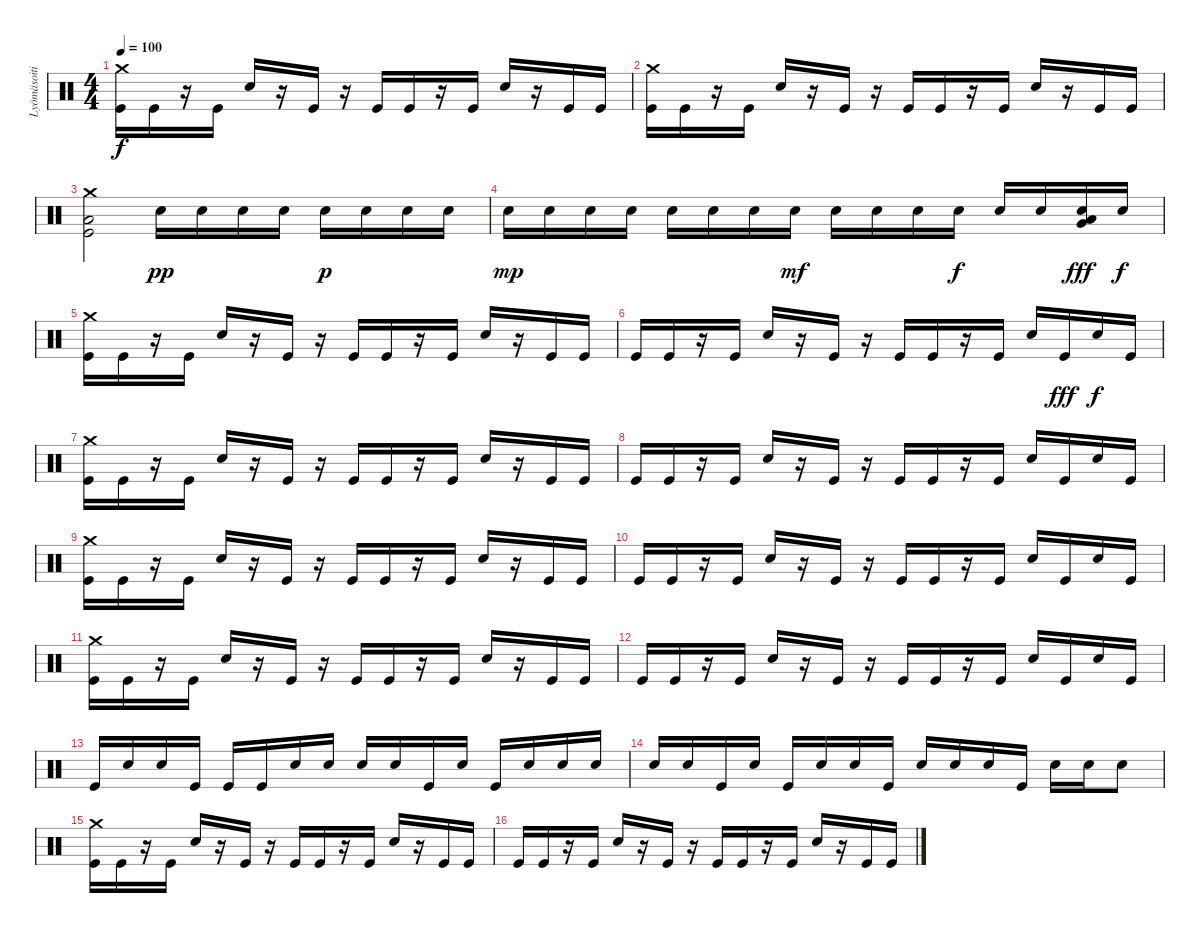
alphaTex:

\track ("Lyömäsoitin" "Lyömäsoiti") {instrument percussion}
\staff {score}
\articulation defaults
\ts (4 4)
\tempo 100
\clef neutral
\ks c
("Crash medium (hit)" "Kick (hit)").16{dy f} "Kick (hit)".16 r.16 "Kick (hit)".16 "Electric Snare (hit)".16 r.16 "Kick (hit)".16 r.16 "Kick (hit)".16 "Kick (hit)".16 r.16 "Kick (hit)".16 "Electric Snare (hit)".16 r.16 "Kick (hit)".16 "Kick (hit)".16 |
("Crash medium (hit)" "Kick (hit)").16 "Kick (hit)".16 r.16 "Kick (hit)".16 "Electric Snare (hit)".16 r.16 "Kick (hit)".16 r.16 "Kick (hit)".16 "Kick (hit)".16 r.16 "Kick (hit)".16 "Electric Snare (hit)".16 r.16 "Kick (hit)".16 "Kick (hit)".16 |
("Crash medium (hit)" "Low Floor Tom (hit)" "Kick (hit)").2 "Electric Snare (hit)".16{dy pp} "Electric Snare (hit)".16 "Electric Snare (hit)".16 "Electric Snare (hit)".16 "Electric Snare (hit)".16{dy p} "Electric Snare (hit)".16 "Electric Snare (hit)".16 "Electric Snare (hit)".16 |
"Electric Snare (hit)".16{dy mp} "Electric Snare (hit)".16 "Electric Snare (hit)".16 "Electric Snare (hit)".16 "Electric Snare (hit)".16 "Electric Snare (hit)".16 "Electric Snare (hit)".16 "Electric Snare (hit)".16{dy mf} "Electric Snare (hit)".16 "Electric Snare (hit)".16 "Electric Snare (hit)".16 "Electric Snare (hit)".16{dy f} "Electric Snare (hit)".16 "Electric Snare (hit)".16 ("Electric Snare (hit)" "Low Floor Tom (hit)" "Very Low Tom (hit)").16{dy fff} "Electric Snare (hit)".16{dy f} |
("Crash medium (hit)" "Kick (hit)").16 "Kick (hit)".16 r.16 "Kick (hit)".16 "Electric Snare (hit)".16 r.16 "Kick (hit)".16 r.16 "Kick (hit)".16 "Kick (hit)".16 r.16 "Kick (hit)".16 "Electric Snare (hit)".16 r.16 "Kick (hit)".16 "Kick (hit)".16 |
"Kick (hit)".16 "Kick (hit)".16 r.16 "Kick (hit)".16 "Electric Snare (hit)".16 r.16 "Kick (hit)".16 r.16 "Kick (hit)".16 "Kick (hit)".16 r.16 "Kick (hit)".16 "Electric Snare (hit)".16 "Kick (hit)".16{dy fff} "Electric Snare (hit)".16{dy f} "Kick (hit)".16 |
("Crash medium (hit)" "Kick (hit)").16 "Kick (hit)".16 r.16 "Kick (hit)".16 "Electric Snare (hit)".16 r.16 "Kick (hit)".16 r.16 "Kick (hit)".16 "Kick (hit)".16 r.16 "Kick (hit)".16 "Electric Snare (hit)".16 r.16 "Kick (hit)".16 "Kick (hit)".16 |
"Kick (hit)".16 "Kick (hit)".16 r.16 "Kick (hit)".16 "Electric Snare (hit)".16 r.16 "Kick (hit)".16 r.16 "Kick (hit)".16 "Kick (hit)".16 r.16 "Kick (hit)".16 "Electric Snare (hit)".16 "Kick (hit)".16 "Electric Snare (hit)".16 "Kick (hit)".16 |
("Crash medium (hit)" "Kick (hit)").16 "Kick (hit)".16 r.16 "Kick (hit)".16 "Electric Snare (hit)".16 r.16 "Kick (hit)".16 r.16 "Kick (hit)".16 "Kick (hit)".16 r.16 "Kick (hit)".16 "Electric Snare (hit)".16 r.16 "Kick (hit)".16 "Kick (hit)".16 |
"Kick (hit)".16 "Kick (hit)".16 r.16 "Kick (hit)".16 "Electric Snare (hit)".16 r.16 "Kick (hit)".16 r.16 "Kick (hit)".16 "Kick (hit)".16 r.16 "Kick (hit)".16 "Electric Snare (hit)".16 "Kick (hit)".16 "Electric Snare (hit)".16 "Kick (hit)".16 |
("Crash medium (hit)" "Kick (hit)").16 "Kick (hit)".16 r.16 "Kick (hit)".16 "Electric Snare (hit)".16 r.16 "Kick (hit)".16 r.16 "Kick (hit)".16 "Kick (hit)".16 r.16 "Kick (hit)".16 "Electric Snare (hit)".16 r.16 "Kick (hit)".16 "Kick (hit)".16 |
"Kick (hit)".16 "Kick (hit)".16 r.16 "Kick (hit)".16 "Electric Snare (hit)".16 r.16 "Kick (hit)".16 r.16 "Kick (hit)".16 "Kick (hit)".16 r.16 "Kick (hit)".16 "Electric Snare (hit)".16 "Kick (hit)".16 "Electric Snare (hit)".16 "Kick (hit)".16 |
"Kick (hit)".16 "Electric Snare (hit)".16 "Electric Snare (hit)".16 "Kick (hit)".16 "Kick (hit)".16 "Kick (hit)".16 "Electric Snare (hit)".16 "Electric Snare (hit)".16 "Electric Snare (hit)".16 "Electric Snare (hit)".16 "Kick (hit)".16 "Electric Snare (hit)".16 "Kick (hit)".16 "Electric Snare (hit)".16 "Electric Snare (hit)".16 "Electric Snare (hit)".16 |
"Electric Snare (hit)".16 "Electric Snare (hit)".16 "Kick (hit)".16 "Electric Snare (hit)".16 "Kick (hit)".16 "Electric Snare (hit)".16 "Electric Snare (hit)".16 "Kick (hit)".16 "Electric Snare (hit)".16 "Electric Snare (hit)".16 "Electric Snare (hit)".16 "Kick (hit)".16 "Electric Snare (hit)".16 "Electric Snare (hit)".16 "Electric Snare (hit)".8 |
("Crash medium (hit)" "Kick (hit)").16 "Kick (hit)".16 r.16 "Kick (hit)".16 "Electric Snare (hit)".16 r.16 "Kick (hit)".16 r.16 "Kick (hit)".16 "Kick (hit)".16 r.16 "Kick (hit)".16 "Electric Snare (hit)".16 r.16 "Kick (hit)".16 "Kick (hit)".16 |
"Kick (hit)".16 "Kick (hit)".16 r.16 "Kick (hit)".16 "Electric Snare (hit)".16 r.16 "Kick (hit)".16 r.16 "Kick (hit)".16 "Kick (hit)".16 r.16 "Kick (hit)".16 "Electric Snare (hit)".16 r.16 "Kick (hit)".16 "Kick (hit)".16
